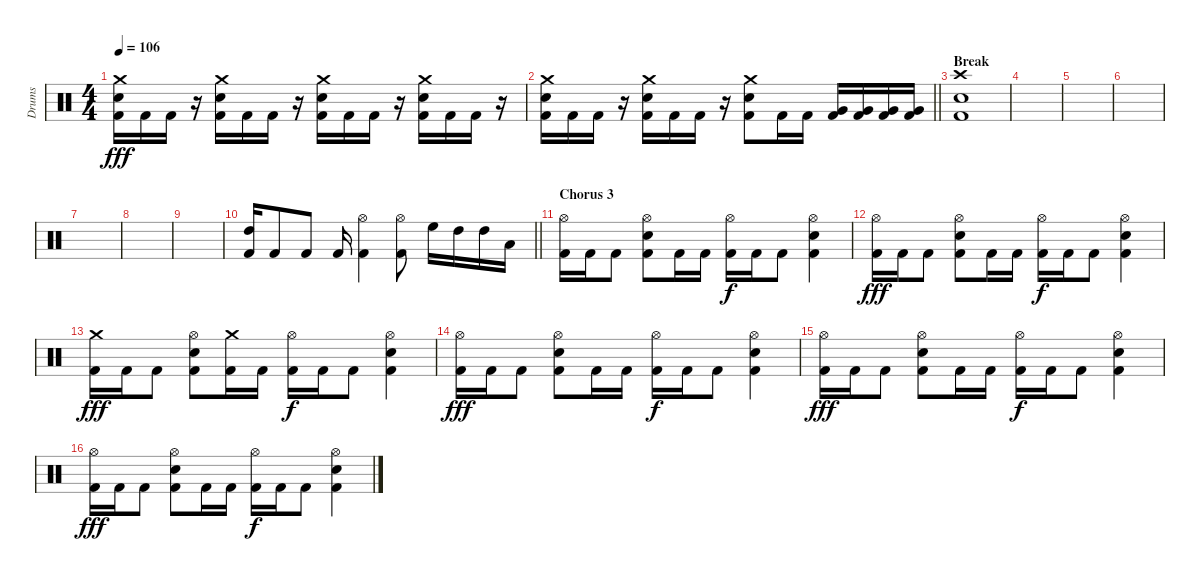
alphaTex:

\track ("Drums" "Drums") {instrument percussion}
\staff {score}
\articulation defaults
\ts (4 4)
\tempo 106
\clef neutral
\ks c
("Crash medium (hit)" "Snare (hit) 2" "Kick (hit) 2").16{dy fff} "Kick (hit) 2".16 "Kick (hit) 2".16 r.16 ("Crash medium (hit)" "Snare (hit) 2" "Kick (hit) 2").16 "Kick (hit) 2".16 "Kick (hit) 2".16 r.16 ("Crash medium (hit)" "Snare (hit) 2" "Kick (hit) 2").16 "Kick (hit) 2".16 "Kick (hit) 2".16 r.16 ("Crash medium (hit)" "Snare (hit) 2" "Kick (hit) 2").16 "Kick (hit) 2".16 "Kick (hit) 2".16 r.16 |
\barLineRight lightlight
("Crash medium (hit)" "Snare (hit) 2" "Kick (hit) 2").16 "Kick (hit) 2".16 "Kick (hit) 2".16 r.16 ("Crash medium (hit)" "Snare (hit) 2" "Kick (hit) 2").16 "Kick (hit) 2".16 "Kick (hit) 2".16 r.16 ("Crash medium (hit)" "Snare (hit) 2" "Kick (hit) 2").8 "Kick (hit) 2".16 "Kick (hit) 2".16 ("Very Low Tom (hit)" "Kick (hit) 2").16 ("Very Low Tom (hit)" "Kick (hit) 2").16 ("Very Low Tom (hit)" "Kick (hit) 2").16 ("Very Low Tom (hit)" "Kick (hit) 2").16 |
\section ("" "Break")
("Crash high (hit)" "Snare (hit) 2" "Kick (hit) 2").1 |
|
|
|
|
|
|
\barLineRight lightlight
("High Tom (hit)" "Kick (hit) 2").16 "Kick (hit) 2".8 "Kick (hit) 2".8 "Kick (hit) 2".16 ("Hi-Hat (open)" "Kick (hit) 2").4 ("Hi-Hat (open)" "Kick (hit) 2").8 "High Floor Tom (hit)".16 "High Tom (hit)".16 "High Tom (hit)".16 "Low Tom (hit)".16 |
\section ("" "Chorus 3")
("Hi-Hat (open)" "Kick (hit) 2").16 "Kick (hit) 2".16 "Kick (hit) 2".8 ("Hi-Hat (open)" "Snare (hit) 2" "Kick (hit) 2").8 "Kick (hit) 2".16 "Kick (hit) 2".16 ("Hi-Hat (open)" "Kick (hit) 2").16{dy f} "Kick (hit) 2".16 "Kick (hit) 2".8 ("Hi-Hat (open)" "Snare (hit) 2" "Kick (hit) 2").4 |
("Hi-Hat (open)" "Kick (hit) 2").16{dy fff} "Kick (hit) 2".16 "Kick (hit) 2".8 ("Hi-Hat (open)" "Snare (hit) 2" "Kick (hit) 2").8 "Kick (hit) 2".16 "Kick (hit) 2".16 ("Hi-Hat (open)" "Kick (hit) 2").16{dy f} "Kick (hit) 2".16 "Kick (hit) 2".8 ("Hi-Hat (open)" "Snare (hit) 2" "Kick (hit) 2").4 |
("Crash medium (hit)" "Kick (hit) 2").16{dy fff} "Kick (hit) 2".16 "Kick (hit) 2".8 ("Hi-Hat (open)" "Snare (hit) 2" "Kick (hit) 2").8 ("Crash medium (hit)" "Kick (hit) 2").16 "Kick (hit) 2".16 ("Hi-Hat (open)" "Kick (hit) 2").16{dy f} "Kick (hit) 2".16 "Kick (hit) 2".8 ("Hi-Hat (open)" "Snare (hit) 2" "Kick (hit) 2").4 |
("Hi-Hat (open)" "Kick (hit) 2").16{dy fff} "Kick (hit) 2".16 "Kick (hit) 2".8 ("Hi-Hat (open)" "Snare (hit) 2" "Kick (hit) 2").8 "Kick (hit) 2".16 "Kick (hit) 2".16 ("Hi-Hat (open)" "Kick (hit) 2").16{dy f} "Kick (hit) 2".16 "Kick (hit) 2".8 ("Hi-Hat (open)" "Snare (hit) 2" "Kick (hit) 2").4 |
("Hi-Hat (open)" "Kick (hit) 2").16{dy fff} "Kick (hit) 2".16 "Kick (hit) 2".8 ("Hi-Hat (open)" "Snare (hit) 2" "Kick (hit) 2").8 "Kick (hit) 2".16 "Kick (hit) 2".16 ("Hi-Hat (open)" "Kick (hit) 2").16{dy f} "Kick (hit) 2".16 "Kick (hit) 2".8 ("Hi-Hat (open)" "Snare (hit) 2" "Kick (hit) 2").4 |
("Hi-Hat (open)" "Kick (hit) 2").16{dy fff} "Kick (hit) 2".16 "Kick (hit) 2".8 ("Hi-Hat (open)" "Snare (hit) 2" "Kick (hit) 2").8 "Kick (hit) 2".16 "Kick (hit) 2".16 ("Hi-Hat (open)" "Kick (hit) 2").16{dy f} "Kick (hit) 2".16 "Kick (hit) 2".8 ("Hi-Hat (open)" "Snare (hit) 2" "Kick (hit) 2").4
